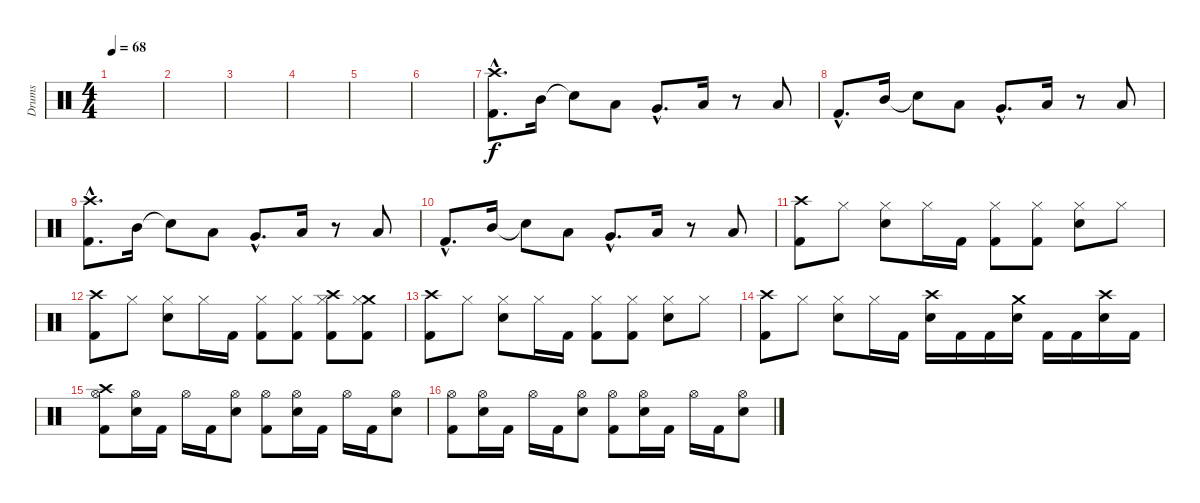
\track ("Drums" "Drums") {instrument percussion}
\staff {score}
\articulation defaults
\ts (4 4)
\tempo 68
\clef neutral
\ks c
|
|
|
|
|
|
("Crash high (hit)"{hac} "Kick (hit) 2"{hac}).8{d} "Mid Tom (hit)".16 "Snare (hit)"{t}.8 "Low Tom (hit)".8 "Very Low Tom (hit)"{hac}.8{d} "Low Floor Tom (hit)".16 r.8 "Low Floor Tom (hit)".8 |
"Kick (hit) 2"{hac}.8{d} "Mid Tom (hit)".16 "Snare (hit)"{t}.8 "Low Tom (hit)".8 "Very Low Tom (hit)"{hac}.8{d} "Low Floor Tom (hit)".16 r.8 "Low Floor Tom (hit)".8 |
("Crash high (hit)"{hac} "Kick (hit) 2"{hac}).8{d} "Mid Tom (hit)".16 "Snare (hit)"{t}.8 "Low Tom (hit)".8 "Very Low Tom (hit)"{hac}.8{d} "Low Floor Tom (hit)".16 r.8 "Low Floor Tom (hit)".8 |
"Kick (hit) 2"{hac}.8{d} "Mid Tom (hit)".16 "Snare (hit)"{t}.8 "Low Tom (hit)".8 "Very Low Tom (hit)"{hac}.8{d} "Low Floor Tom (hit)".16 r.8 "Low Floor Tom (hit)".8 |
("Crash high (hit)" "Kick (hit) 2").8 "Hi-Hat (closed)".8 ("Hi-Hat (closed)" "Snare (hit) 2").8 "Hi-Hat (closed)".16 "Kick (hit) 2".16 ("Hi-Hat (closed)" "Kick (hit) 2").8 ("Hi-Hat (closed)" "Kick (hit) 2").8 ("Hi-Hat (closed)" "Snare (hit) 2").8 "Hi-Hat (closed)".8 |
("Crash high (hit)" "Kick (hit) 2").8 "Hi-Hat (closed)".8 ("Hi-Hat (closed)" "Snare (hit) 2").8 "Hi-Hat (closed)".16 "Kick (hit) 2".16 ("Hi-Hat (closed)" "Kick (hit) 2").8 ("Hi-Hat (closed)" "Kick (hit) 2").8 ("Crash high (hit)" "Hi-Hat (closed)" "Kick (hit) 2").8 ("Crash medium (hit)" "Hi-Hat (closed)" "Kick (hit) 2").8 |
("Crash high (hit)" "Kick (hit) 2").8 "Hi-Hat (closed)".8 ("Hi-Hat (closed)" "Snare (hit) 2").8 "Hi-Hat (closed)".16 "Kick (hit) 2".16 ("Hi-Hat (closed)" "Kick (hit) 2").8 ("Hi-Hat (closed)" "Kick (hit) 2").8 ("Hi-Hat (closed)" "Snare (hit) 2").8 "Hi-Hat (closed)".8 |
("Crash high (hit)" "Kick (hit) 2").8 "Hi-Hat (closed)".8 ("Hi-Hat (closed)" "Snare (hit) 2").8 "Hi-Hat (closed)".16 "Kick (hit) 2".16 ("Crash high (hit)" "Snare (hit) 2").16 "Kick (hit) 2".16 "Kick (hit) 2".16 ("Crash medium (hit)" "Snare (hit) 2").16 "Kick (hit) 2".16 "Kick (hit) 2".16 ("Crash high (hit)" "Snare (hit) 2").16 "Kick (hit) 2".16 |
("Crash high (hit)" "Hi-Hat (open)" "Kick (hit) 2").8 ("Hi-Hat (open)" "Snare (hit) 2").16 "Kick (hit) 2".16 "Hi-Hat (open)".16 "Kick (hit) 2".16 ("Hi-Hat (open)" "Snare (hit) 2").8 ("Hi-Hat (open)" "Kick (hit) 2").8 ("Hi-Hat (open)" "Snare (hit) 2").16 "Kick (hit) 2".16 "Hi-Hat (open)".16 "Kick (hit) 2".16 ("Hi-Hat (open)" "Snare (hit) 2").8 |
("Hi-Hat (open)" "Kick (hit) 2").8 ("Hi-Hat (open)" "Snare (hit) 2").16 "Kick (hit) 2".16 "Hi-Hat (open)".16 "Kick (hit) 2".16 ("Hi-Hat (open)" "Snare (hit) 2").8 ("Hi-Hat (open)" "Kick (hit) 2").8 ("Hi-Hat (open)" "Snare (hit) 2").16 "Kick (hit) 2".16 "Hi-Hat (open)".16 "Kick (hit) 2".16 ("Hi-Hat (open)" "Snare (hit) 2").8
